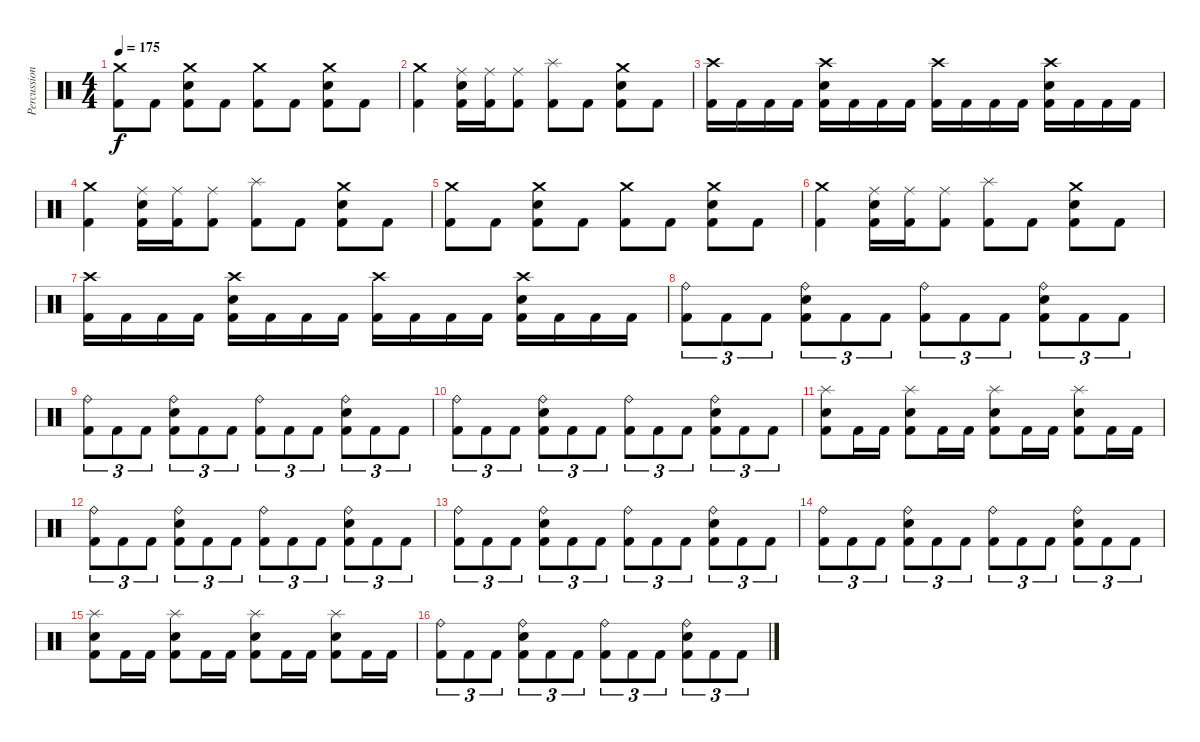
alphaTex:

\track ("Percussion" "Percussion") {instrument percussion}
\staff {score}
\articulation defaults
\ts (4 4)
\tempo 175
\clef neutral
\ks c
("Crash medium (hit)" "Kick (hit) 2").8{dy f} "Kick (hit) 2".8 ("Crash medium (hit)" "Electric Snare (hit)" "Kick (hit) 2").8 "Kick (hit) 2".8 ("Crash medium (hit)" "Kick (hit) 2").8 "Kick (hit) 2".8 ("Crash medium (hit)" "Electric Snare (hit)" "Kick (hit) 2").8 "Kick (hit) 2".8 |
("Crash medium (hit)" "Kick (hit) 2").4 ("Ride (middle)" "Electric Snare (hit)" "Kick (hit) 2").16 ("Ride (middle)" "Kick (hit) 2").16 ("Ride (middle)" "Kick (hit) 2").8 ("Splash (hit)" "Kick (hit) 2").8 "Kick (hit) 2".8 ("Crash medium (hit)" "Electric Snare (hit)" "Kick (hit) 2").8 "Kick (hit) 2".8 |
("Crash high (hit)" "Kick (hit) 2").16 "Kick (hit) 2".16 "Kick (hit) 2".16 "Kick (hit) 2".16 ("Crash high (hit)" "Electric Snare (hit)" "Kick (hit) 2").16 "Kick (hit) 2".16 "Kick (hit) 2".16 "Kick (hit) 2".16 ("Crash high (hit)" "Kick (hit) 2").16 "Kick (hit) 2".16 "Kick (hit) 2".16 "Kick (hit) 2".16 ("Crash high (hit)" "Electric Snare (hit)" "Kick (hit) 2").16 "Kick (hit) 2".16 "Kick (hit) 2".16 "Kick (hit) 2".16 |
("Crash medium (hit)" "Kick (hit) 2").4 ("Ride (middle)" "Electric Snare (hit)" "Kick (hit) 2").16 ("Ride (middle)" "Kick (hit) 2").16 ("Ride (middle)" "Kick (hit) 2").8 ("Splash (hit)" "Kick (hit) 2").8 "Kick (hit) 2".8 ("Crash medium (hit)" "Electric Snare (hit)" "Kick (hit) 2").8 "Kick (hit) 2".8 |
("Crash medium (hit)" "Kick (hit) 2").8 "Kick (hit) 2".8 ("Crash medium (hit)" "Electric Snare (hit)" "Kick (hit) 2").8 "Kick (hit) 2".8 ("Crash medium (hit)" "Kick (hit) 2").8 "Kick (hit) 2".8 ("Crash medium (hit)" "Electric Snare (hit)" "Kick (hit) 2").8 "Kick (hit) 2".8 |
("Crash medium (hit)" "Kick (hit) 2").4 ("Ride (middle)" "Electric Snare (hit)" "Kick (hit) 2").16 ("Ride (middle)" "Kick (hit) 2").16 ("Ride (middle)" "Kick (hit) 2").8 ("Splash (hit)" "Kick (hit) 2").8 "Kick (hit) 2".8 ("Crash medium (hit)" "Electric Snare (hit)" "Kick (hit) 2").8 "Kick (hit) 2".8 |
("Crash high (hit)" "Kick (hit) 2").16 "Kick (hit) 2".16 "Kick (hit) 2".16 "Kick (hit) 2".16 ("Crash high (hit)" "Electric Snare (hit)" "Kick (hit) 2").16 "Kick (hit) 2".16 "Kick (hit) 2".16 "Kick (hit) 2".16 ("Crash high (hit)" "Kick (hit) 2").16 "Kick (hit) 2".16 "Kick (hit) 2".16 "Kick (hit) 2".16 ("Crash high (hit)" "Electric Snare (hit)" "Kick (hit) 2").16 "Kick (hit) 2".16 "Kick (hit) 2".16 "Kick (hit) 2".16 |
("Ride (bell)" "Kick (hit) 2").8{tu (3 2)} "Kick (hit) 2".8{tu (3 2)} "Kick (hit) 2".8{tu (3 2)} ("Ride (bell)" "Electric Snare (hit)" "Kick (hit) 2").8{tu (3 2)} "Kick (hit) 2".8{tu (3 2)} "Kick (hit) 2".8{tu (3 2)} ("Ride (bell)" "Kick (hit) 2").8{tu (3 2)} "Kick (hit) 2".8{tu (3 2)} "Kick (hit) 2".8{tu (3 2)} ("Ride (bell)" "Electric Snare (hit)" "Kick (hit) 2").8{tu (3 2)} "Kick (hit) 2".8{tu (3 2)} "Kick (hit) 2".8{tu (3 2)} |
("Ride (bell)" "Kick (hit) 2").8{tu (3 2)} "Kick (hit) 2".8{tu (3 2)} "Kick (hit) 2".8{tu (3 2)} ("Ride (bell)" "Electric Snare (hit)" "Kick (hit) 2").8{tu (3 2)} "Kick (hit) 2".8{tu (3 2)} "Kick (hit) 2".8{tu (3 2)} ("Ride (bell)" "Kick (hit) 2").8{tu (3 2)} "Kick (hit) 2".8{tu (3 2)} "Kick (hit) 2".8{tu (3 2)} ("Ride (bell)" "Electric Snare (hit)" "Kick (hit) 2").8{tu (3 2)} "Kick (hit) 2".8{tu (3 2)} "Kick (hit) 2".8{tu (3 2)} |
("Ride (bell)" "Kick (hit) 2").8{tu (3 2)} "Kick (hit) 2".8{tu (3 2)} "Kick (hit) 2".8{tu (3 2)} ("Ride (bell)" "Electric Snare (hit)" "Kick (hit) 2").8{tu (3 2)} "Kick (hit) 2".8{tu (3 2)} "Kick (hit) 2".8{tu (3 2)} ("Ride (bell)" "Kick (hit) 2").8{tu (3 2)} "Kick (hit) 2".8{tu (3 2)} "Kick (hit) 2".8{tu (3 2)} ("Ride (bell)" "Electric Snare (hit)" "Kick (hit) 2").8{tu (3 2)} "Kick (hit) 2".8{tu (3 2)} "Kick (hit) 2".8{tu (3 2)} |
("Splash (hit)" "Electric Snare (hit)" "Kick (hit) 2").8 "Kick (hit) 2".16 "Kick (hit) 2".16 ("Splash (hit)" "Electric Snare (hit)" "Kick (hit) 2").8 "Kick (hit) 2".16 "Kick (hit) 2".16 ("Splash (hit)" "Electric Snare (hit)" "Kick (hit) 2").8 "Kick (hit) 2".16 "Kick (hit) 2".16 ("Splash (hit)" "Electric Snare (hit)" "Kick (hit) 2").8 "Kick (hit) 2".16 "Kick (hit) 2".16 |
("Ride (bell)" "Kick (hit) 2").8{tu (3 2)} "Kick (hit) 2".8{tu (3 2)} "Kick (hit) 2".8{tu (3 2)} ("Ride (bell)" "Electric Snare (hit)" "Kick (hit) 2").8{tu (3 2)} "Kick (hit) 2".8{tu (3 2)} "Kick (hit) 2".8{tu (3 2)} ("Ride (bell)" "Kick (hit) 2").8{tu (3 2)} "Kick (hit) 2".8{tu (3 2)} "Kick (hit) 2".8{tu (3 2)} ("Ride (bell)" "Electric Snare (hit)" "Kick (hit) 2").8{tu (3 2)} "Kick (hit) 2".8{tu (3 2)} "Kick (hit) 2".8{tu (3 2)} |
("Ride (bell)" "Kick (hit) 2").8{tu (3 2)} "Kick (hit) 2".8{tu (3 2)} "Kick (hit) 2".8{tu (3 2)} ("Ride (bell)" "Electric Snare (hit)" "Kick (hit) 2").8{tu (3 2)} "Kick (hit) 2".8{tu (3 2)} "Kick (hit) 2".8{tu (3 2)} ("Ride (bell)" "Kick (hit) 2").8{tu (3 2)} "Kick (hit) 2".8{tu (3 2)} "Kick (hit) 2".8{tu (3 2)} ("Ride (bell)" "Electric Snare (hit)" "Kick (hit) 2").8{tu (3 2)} "Kick (hit) 2".8{tu (3 2)} "Kick (hit) 2".8{tu (3 2)} |
("Ride (bell)" "Kick (hit) 2").8{tu (3 2)} "Kick (hit) 2".8{tu (3 2)} "Kick (hit) 2".8{tu (3 2)} ("Ride (bell)" "Electric Snare (hit)" "Kick (hit) 2").8{tu (3 2)} "Kick (hit) 2".8{tu (3 2)} "Kick (hit) 2".8{tu (3 2)} ("Ride (bell)" "Kick (hit) 2").8{tu (3 2)} "Kick (hit) 2".8{tu (3 2)} "Kick (hit) 2".8{tu (3 2)} ("Ride (bell)" "Electric Snare (hit)" "Kick (hit) 2").8{tu (3 2)} "Kick (hit) 2".8{tu (3 2)} "Kick (hit) 2".8{tu (3 2)} |
("Splash (hit)" "Electric Snare (hit)" "Kick (hit) 2").8 "Kick (hit) 2".16 "Kick (hit) 2".16 ("Splash (hit)" "Electric Snare (hit)" "Kick (hit) 2").8 "Kick (hit) 2".16 "Kick (hit) 2".16 ("Splash (hit)" "Electric Snare (hit)" "Kick (hit) 2").8 "Kick (hit) 2".16 "Kick (hit) 2".16 ("Splash (hit)" "Electric Snare (hit)" "Kick (hit) 2").8 "Kick (hit) 2".16 "Kick (hit) 2".16 |
("Ride (bell)" "Kick (hit) 2").8{tu (3 2)} "Kick (hit) 2".8{tu (3 2)} "Kick (hit) 2".8{tu (3 2)} ("Ride (bell)" "Electric Snare (hit)" "Kick (hit) 2").8{tu (3 2)} "Kick (hit) 2".8{tu (3 2)} "Kick (hit) 2".8{tu (3 2)} ("Ride (bell)" "Kick (hit) 2").8{tu (3 2)} "Kick (hit) 2".8{tu (3 2)} "Kick (hit) 2".8{tu (3 2)} ("Ride (bell)" "Electric Snare (hit)" "Kick (hit) 2").8{tu (3 2)} "Kick (hit) 2".8{tu (3 2)} "Kick (hit) 2".8{tu (3 2)}
